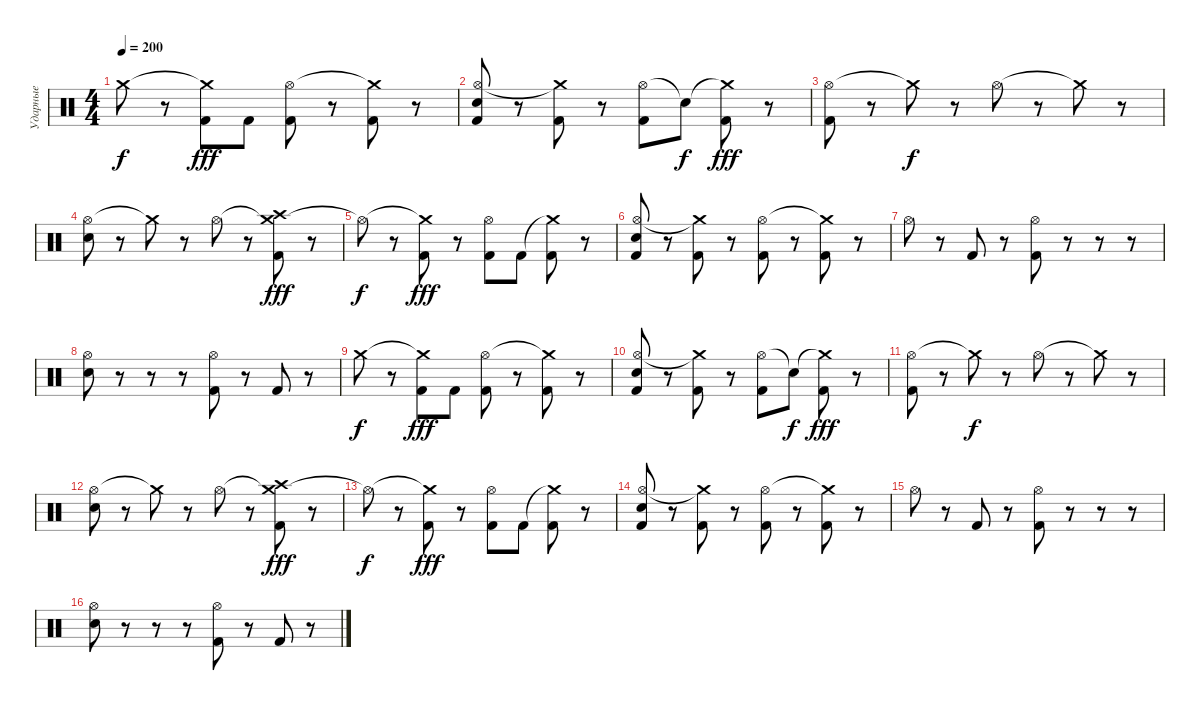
\track ("Ударные" "Ударные") {instrument percussion}
\staff {score}
\articulation defaults
\ts (4 4)
\tempo 200
\clef neutral
\ks c "Crash medium (hit)".8{dy f}
r.8 ("Crash medium (hit)"{t} "Kick (hit) 2").8{dy fff} "Kick (hit) 2".8 ("Hi-Hat (open)" "Kick (hit) 2").8 r.8 ("Crash medium (hit)"{t} "Kick (hit) 2").8 r.8 |
("Hi-Hat (open)" "Electric Snare (hit)" "Kick (hit) 2").8 r.8 ("Crash medium (hit)"{t} "Kick (hit) 2").8 r.8 ("Hi-Hat (open)" "Kick (hit) 2").8 "Snare (hit)"{t}.8{dy f} ("Crash medium (hit)"{t} "Kick (hit) 2").8{dy fff} r.8 |
("Hi-Hat (open)" "Kick (hit) 2").8 r.8 "Crash medium (hit)"{t}.8{dy f} r.8 "Hi-Hat (open)".8 r.8 "Crash medium (hit)"{t}.8 r.8 |
("Hi-Hat (open)" "Electric Snare (hit)").8 r.8 "Crash medium (hit)"{t}.8 r.8 "Hi-Hat (open)".8 r.8 ("Crash medium (hit)"{t} "Crash high (hit)" "Kick (hit) 2").8{dy fff} r.8 |
"Hi-Hat (open)"{t}.8{dy f} r.8 ("Crash medium (hit)"{t} "Kick (hit) 2").8{dy fff} r.8 ("Hi-Hat (open)" "Kick (hit) 2").8 "Kick (hit) 2".8 ("Crash medium (hit)"{t} "Kick (hit) 2").8 r.8 |
("Hi-Hat (open)" "Electric Snare (hit)" "Kick (hit) 2").8 r.8 ("Crash medium (hit)"{t} "Kick (hit) 2").8 r.8 ("Hi-Hat (open)" "Kick (hit) 2").8 r.8 ("Crash medium (hit)"{t} "Kick (hit) 2").8 r.8 |
"Hi-Hat (open)".8 r.8 "Kick (hit) 2".8 r.8 ("Hi-Hat (open)" "Kick (hit) 2").8 r.8 r.8 r.8 |
("Hi-Hat (open)" "Electric Snare (hit)").8 r.8 r.8 r.8 ("Hi-Hat (open)" "Kick (hit) 2").8 r.8 "Kick (hit) 2".8 r.8 |
"Crash medium (hit)".8{dy f} r.8 ("Crash medium (hit)"{t} "Kick (hit) 2").8{dy fff} "Kick (hit) 2".8 ("Hi-Hat (open)" "Kick (hit) 2").8 r.8 ("Crash medium (hit)"{t} "Kick (hit) 2").8 r.8 |
("Hi-Hat (open)" "Electric Snare (hit)" "Kick (hit) 2").8 r.8 ("Crash medium (hit)"{t} "Kick (hit) 2").8 r.8 ("Hi-Hat (open)" "Kick (hit) 2").8 "Snare (hit)"{t}.8{dy f} ("Crash medium (hit)"{t} "Kick (hit) 2").8{dy fff} r.8 |
("Hi-Hat (open)" "Kick (hit) 2").8 r.8 "Crash medium (hit)"{t}.8{dy f} r.8 "Hi-Hat (open)".8 r.8 "Crash medium (hit)"{t}.8 r.8 |
("Hi-Hat (open)" "Electric Snare (hit)").8 r.8 "Crash medium (hit)"{t}.8 r.8 "Hi-Hat (open)".8 r.8 ("Crash medium (hit)"{t} "Crash high (hit)" "Kick (hit) 2").8{dy fff} r.8 |
"Hi-Hat (open)"{t}.8{dy f} r.8 ("Crash medium (hit)"{t} "Kick (hit) 2").8{dy fff} r.8 ("Hi-Hat (open)" "Kick (hit) 2").8 "Kick (hit) 2".8 ("Crash medium (hit)"{t} "Kick (hit) 2").8 r.8 |
("Hi-Hat (open)" "Electric Snare (hit)" "Kick (hit) 2").8 r.8 ("Crash medium (hit)"{t} "Kick (hit) 2").8 r.8 ("Hi-Hat (open)" "Kick (hit) 2").8 r.8 ("Crash medium (hit)"{t} "Kick (hit) 2").8 r.8 |
"Hi-Hat (open)".8 r.8 "Kick (hit) 2".8 r.8 ("Hi-Hat (open)" "Kick (hit) 2").8 r.8 r.8 r.8 |
("Hi-Hat (open)" "Electric Snare (hit)").8 r.8 r.8 r.8 ("Hi-Hat (open)" "Kick (hit) 2").8 r.8 "Kick (hit) 2".8 r.8
